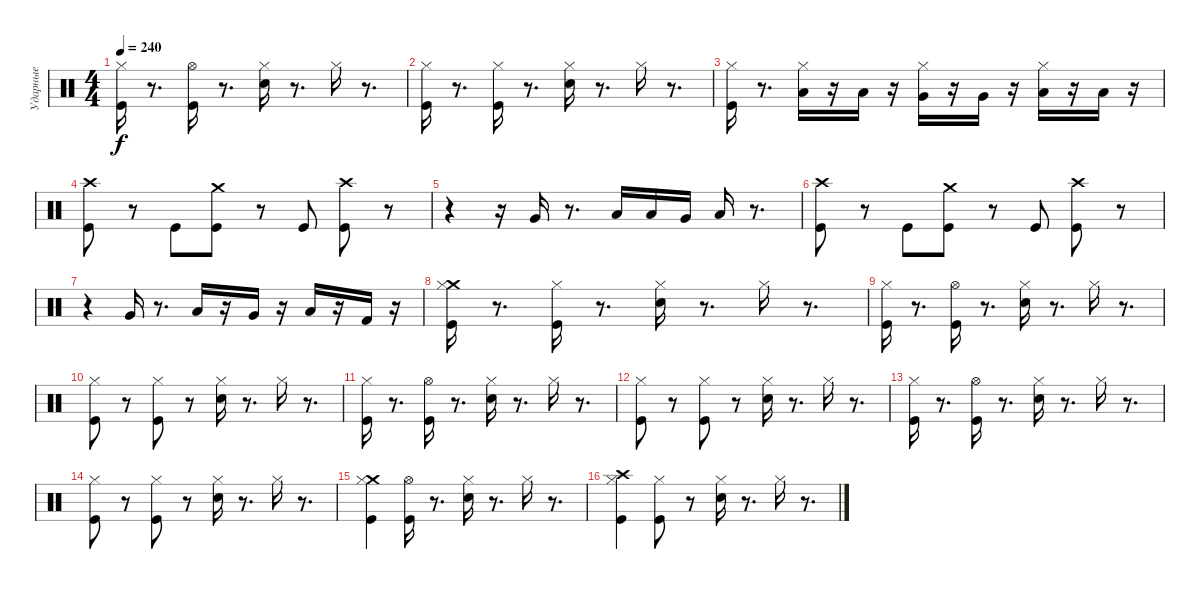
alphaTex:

\track ("Ударные" "Ударные") {instrument percussion}
\staff {score}
\articulation defaults
\ts (4 4)
\tempo 240
\clef neutral
\ks c
("Kick (hit)" "Hi-Hat (closed)").16{dy f} r.8{d} ("Kick (hit)" "Hi-Hat (open)").16 r.8{d} ("Snare (hit) 2" "Hi-Hat (closed)").16 r.8{d} "Hi-Hat (closed)".16 r.8{d} |
("Kick (hit)" "Hi-Hat (closed)").16 r.8{d} ("Kick (hit)" "Hi-Hat (closed)").16 r.8{d} ("Snare (hit) 2" "Hi-Hat (closed)").16 r.8{d} "Hi-Hat (closed)".16 r.8{d} |
("Kick (hit)" "Hi-Hat (closed)").16 r.8{d} ("Low Floor Tom (hit)" "Hi-Hat (closed)").16 r.16 "Low Floor Tom (hit)".16 r.16 ("Very Low Tom (hit)" "Hi-Hat (closed)").16 r.16 "Very Low Tom (hit)".16 r.16 ("Low Tom (hit)" "Hi-Hat (closed)").16 r.16 "Low Tom (hit)".16 r.16 |
("Kick (hit)" "Crash high (hit)").8 r.8 "Kick (hit)".8 ("Kick (hit)" "Crash medium (hit)").8 r.8 "Kick (hit)".8 ("Kick (hit)" "Crash high (hit)").8 r.8 |
r.4 r.16 "Very Low Tom (hit)".16 r.8{d} "Low Tom (hit)".16 "Low Tom (hit)".16 "Very Low Tom (hit)".16 "Low Floor Tom (hit)".16 r.8{d} |
("Kick (hit)" "Crash high (hit)").8 r.8 "Kick (hit)".8 ("Kick (hit)" "Crash medium (hit)").8 r.8 "Kick (hit)".8 ("Kick (hit)" "Crash high (hit)").8 r.8 |
r.4 "Very Low Tom (hit)".16 r.8{d} "Low Tom (hit)".16 r.16 "Very Low Tom (hit)".16 r.16 "Low Floor Tom (hit)".16 r.16 "Kick (hit) 2".16 r.16 |
("Kick (hit)" "Crash medium (hit)" "Hi-Hat (closed)").16 r.8{d} ("Kick (hit)" "Hi-Hat (closed)").16 r.8{d} ("Snare (hit) 2" "Hi-Hat (closed)").16 r.8{d} "Hi-Hat (closed)".16 r.8{d} |
("Kick (hit)" "Hi-Hat (closed)").16 r.8{d} ("Kick (hit)" "Hi-Hat (open)").16 r.8{d} ("Snare (hit) 2" "Hi-Hat (closed)").16 r.8{d} "Hi-Hat (closed)".16 r.8{d} |
("Hi-Hat (closed)" "Kick (hit)").8 r.8 ("Kick (hit)" "Hi-Hat (closed)").8 r.8 ("Snare (hit) 2" "Hi-Hat (closed)").16 r.8{d} "Hi-Hat (closed)".16 r.8{d} |
("Kick (hit)" "Hi-Hat (closed)").16 r.8{d} ("Kick (hit)" "Hi-Hat (open)").16 r.8{d} ("Snare (hit) 2" "Hi-Hat (closed)").16 r.8{d} "Hi-Hat (closed)".16 r.8{d} |
("Hi-Hat (closed)" "Kick (hit)").8 r.8 ("Kick (hit)" "Hi-Hat (closed)").8 r.8 ("Snare (hit) 2" "Hi-Hat (closed)").16 r.8{d} "Hi-Hat (closed)".16 r.8{d} |
("Kick (hit)" "Hi-Hat (closed)").16 r.8{d} ("Kick (hit)" "Hi-Hat (open)").16 r.8{d} ("Snare (hit) 2" "Hi-Hat (closed)").16 r.8{d} "Hi-Hat (closed)".16 r.8{d} |
("Hi-Hat (closed)" "Kick (hit)").8 r.8 ("Kick (hit)" "Hi-Hat (closed)").8 r.8 ("Snare (hit) 2" "Hi-Hat (closed)").16 r.8{d} "Hi-Hat (closed)".16 r.8{d} |
("Crash medium (hit)" "Kick (hit)" "Hi-Hat (closed)").4 ("Kick (hit)" "Hi-Hat (open)").16 r.8{d} ("Snare (hit) 2" "Hi-Hat (closed)").16 r.8{d} "Hi-Hat (closed)".16 r.8{d} |
("Crash high (hit)" "Hi-Hat (closed)" "Kick (hit)").4 ("Kick (hit)" "Hi-Hat (closed)").8 r.8 ("Snare (hit) 2" "Hi-Hat (closed)").16 r.8{d} "Hi-Hat (closed)".16 r.8{d}
